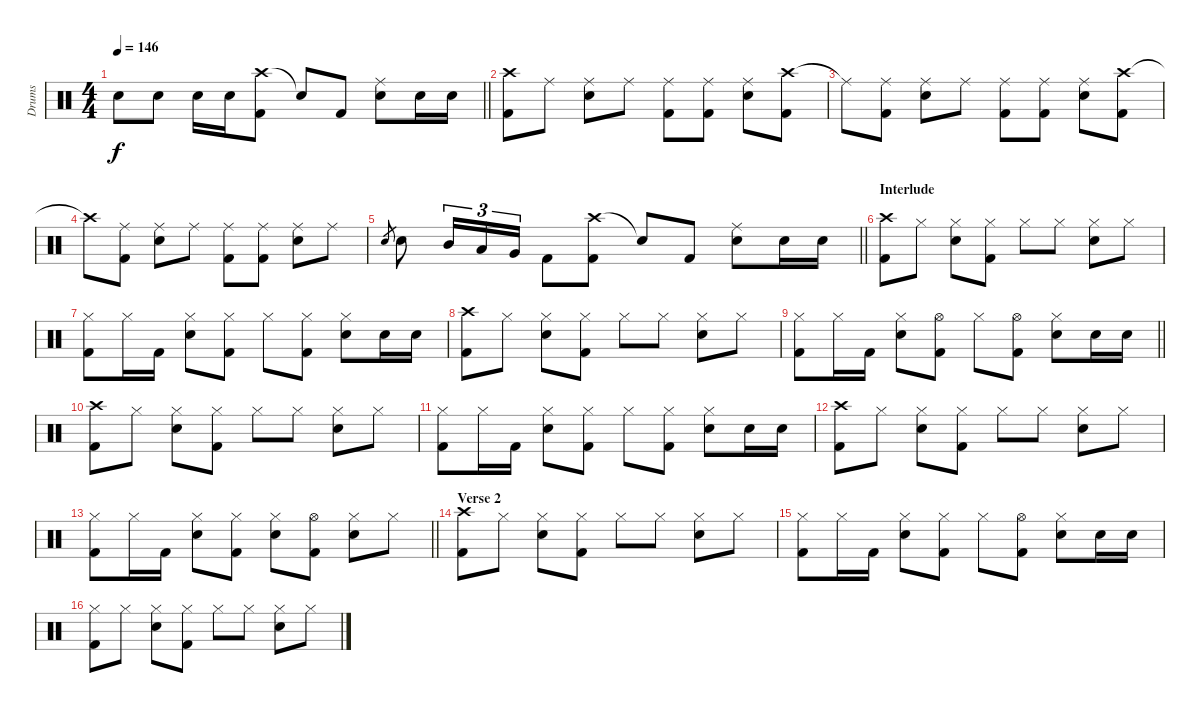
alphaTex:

\track ("Drums" "Drums") {instrument percussion}
\staff {score}
\articulation defaults
\ts (4 4)
\tempo 146
\clef neutral
\barLineRight lightlight
\ks c "Snare (hit) 2".8{dy f} "Snare (hit) 2".8 "Snare (hit) 2".16 "Snare (hit) 2".16
("Crash high (hit)" "Kick (hit) 2").8 "Snare (hit)"{t}.8 "Kick (hit) 2".8 ("Ride (middle)" "Snare (hit) 2").8 "Snare (hit) 2".16 "Snare (hit) 2".16 |
("Crash high (hit)" "Kick (hit) 2").8 "Ride (middle)".8 ("Ride (middle)" "Snare (hit) 2").8 "Ride (middle)".8 ("Ride (middle)" "Kick (hit) 2").8 ("Ride (middle)" "Kick (hit) 2").8 ("Ride (middle)" "Snare (hit) 2").8 ("Crash high (hit)" "Kick (hit) 2").8 |
"Ride (middle)"{t}.8 ("Ride (middle)" "Kick (hit) 2").8 ("Ride (middle)" "Snare (hit) 2").8 "Ride (middle)".8 ("Ride (middle)" "Kick (hit) 2").8 ("Ride (middle)" "Kick (hit) 2").8 ("Ride (middle)" "Snare (hit) 2").8 ("Crash high (hit)" "Kick (hit) 2").8 |
"Crash high (hit)"{t}.8 ("Ride (middle)" "Kick (hit) 2").8 ("Ride (middle)" "Snare (hit) 2").8 "Ride (middle)".8 ("Ride (middle)" "Kick (hit) 2").8 ("Ride (middle)" "Kick (hit) 2").8 ("Ride (middle)" "Snare (hit) 2").8 "Ride (middle)".8 |
\barLineRight lightlight "Snare (hit) 2".8{gr} "Snare (hit) 2".8 "Mid Tom (hit)".16{tu (3 2)} "Low Tom (hit)".16{tu (3 2)} "Very Low Tom (hit)".16{tu (3 2)} "Kick (hit) 2".8
("Crash high (hit)" "Kick (hit) 2").8 "Snare (hit)"{t}.8 "Kick (hit) 2".8 ("Ride (middle)" "Snare (hit) 2").8 "Snare (hit) 2".16 "Snare (hit) 2".16 |
\section ("" "Interlude")
("Crash high (hit)" "Kick (hit) 2").8 "Hi-Hat (closed)".8 ("Hi-Hat (closed)" "Snare (hit) 2").8 ("Hi-Hat (closed)" "Kick (hit) 2").8 "Hi-Hat (closed)".8 "Hi-Hat (closed)".8 ("Hi-Hat (closed)" "Snare (hit) 2").8 "Hi-Hat (closed)".8 |
("Hi-Hat (closed)" "Kick (hit) 2").8 "Hi-Hat (closed)".16 "Kick (hit) 2".16 ("Hi-Hat (closed)" "Snare (hit) 2").8 ("Hi-Hat (closed)" "Kick (hit) 2").8 "Hi-Hat (closed)".8 ("Hi-Hat (closed)" "Kick (hit) 2").8 ("Hi-Hat (closed)" "Snare (hit) 2").8 "Snare (hit) 2".16 "Snare (hit) 2".16 |
("Crash high (hit)" "Kick (hit) 2").8 "Hi-Hat (closed)".8 ("Hi-Hat (closed)" "Snare (hit) 2").8 ("Hi-Hat (closed)" "Kick (hit) 2").8 "Hi-Hat (closed)".8 "Hi-Hat (closed)".8 ("Hi-Hat (closed)" "Snare (hit) 2").8 "Hi-Hat (closed)".8 |
\barLineRight lightlight
("Hi-Hat (closed)" "Kick (hit) 2").8 "Hi-Hat (closed)".16 "Kick (hit) 2".16 ("Hi-Hat (closed)" "Snare (hit) 2").8 ("Hi-Hat (open)" "Kick (hit) 2").8 "Hi-Hat (closed)".8 ("Hi-Hat (open)" "Kick (hit) 2").8 ("Hi-Hat (closed)" "Snare (hit) 2").8 "Snare (hit) 2".16 "Snare (hit) 2".16 |
("Crash high (hit)" "Kick (hit) 2").8 "Hi-Hat (closed)".8 ("Hi-Hat (closed)" "Snare (hit) 2").8 ("Hi-Hat (closed)" "Kick (hit) 2").8 "Hi-Hat (closed)".8 "Hi-Hat (closed)".8 ("Hi-Hat (closed)" "Snare (hit) 2").8 "Hi-Hat (closed)".8 |
("Hi-Hat (closed)" "Kick (hit) 2").8 "Hi-Hat (closed)".16 "Kick (hit) 2".16 ("Hi-Hat (closed)" "Snare (hit) 2").8 ("Hi-Hat (closed)" "Kick (hit) 2").8 "Hi-Hat (closed)".8 ("Hi-Hat (closed)" "Kick (hit) 2").8 ("Hi-Hat (closed)" "Snare (hit) 2").8 "Snare (hit) 2".16 "Snare (hit) 2".16 |
("Crash high (hit)" "Kick (hit) 2").8 "Hi-Hat (closed)".8 ("Hi-Hat (closed)" "Snare (hit) 2").8 ("Hi-Hat (closed)" "Kick (hit) 2").8 "Hi-Hat (closed)".8 "Hi-Hat (closed)".8 ("Hi-Hat (closed)" "Snare (hit) 2").8 "Hi-Hat (closed)".8 |
\barLineRight lightlight
("Hi-Hat (closed)" "Kick (hit) 2").8 "Hi-Hat (closed)".16 "Kick (hit) 2".16 ("Hi-Hat (closed)" "Snare (hit) 2").8 ("Hi-Hat (closed)" "Kick (hit) 2").8 ("Hi-Hat (closed)" "Snare (hit) 2").8 ("Hi-Hat (open)" "Kick (hit) 2").8 ("Hi-Hat (closed)" "Snare (hit) 2").8 "Hi-Hat (closed)".8 |
\section ("" "Verse 2")
("Crash high (hit)" "Kick (hit) 2").8 "Hi-Hat (closed)".8 ("Hi-Hat (closed)" "Snare (hit) 2").8 ("Hi-Hat (closed)" "Kick (hit) 2").8 "Hi-Hat (closed)".8 "Hi-Hat (closed)".8 ("Hi-Hat (closed)" "Snare (hit) 2").8 "Hi-Hat (closed)".8 |
("Hi-Hat (closed)" "Kick (hit) 2").8 "Hi-Hat (closed)".16 "Kick (hit) 2".16 ("Hi-Hat (closed)" "Snare (hit) 2").8 ("Hi-Hat (closed)" "Kick (hit) 2").8 "Hi-Hat (closed)".8 ("Hi-Hat (open)" "Kick (hit) 2").8 ("Hi-Hat (closed)" "Snare (hit) 2").8 "Snare (hit) 2".16 "Snare (hit) 2".16 |
("Hi-Hat (closed)" "Kick (hit) 2").8 "Hi-Hat (closed)".8 ("Hi-Hat (closed)" "Snare (hit) 2").8 ("Hi-Hat (closed)" "Kick (hit) 2").8 "Hi-Hat (closed)".8 "Hi-Hat (closed)".8 ("Hi-Hat (closed)" "Snare (hit) 2").8 "Hi-Hat (closed)".8
